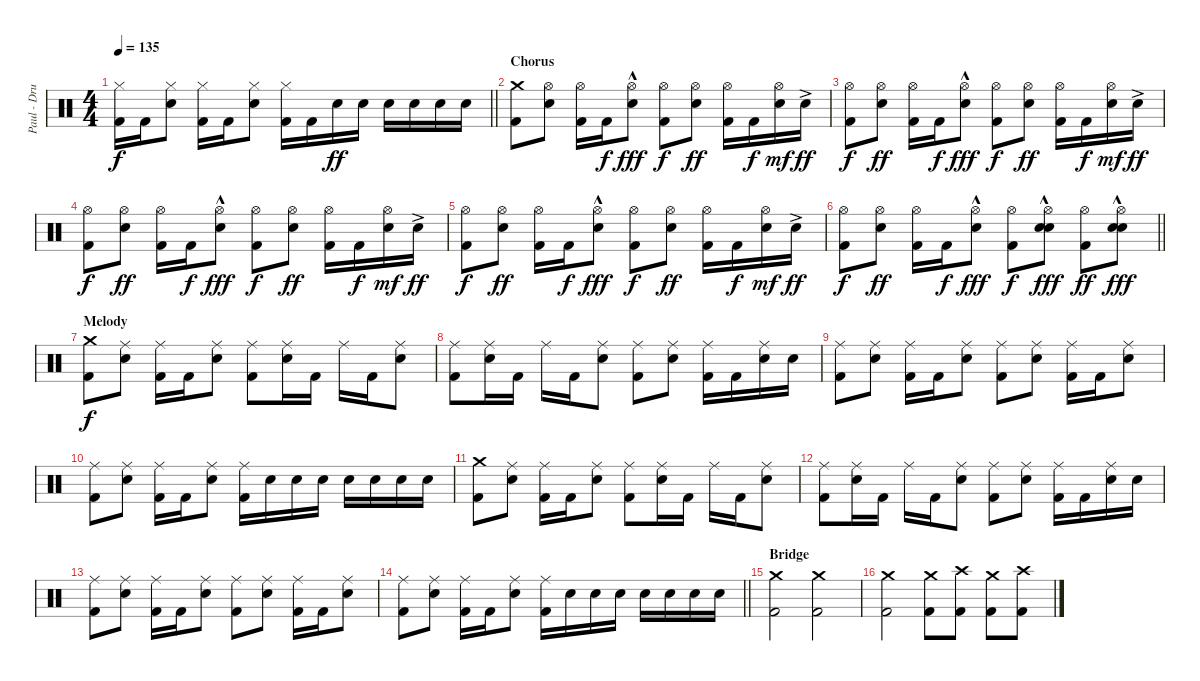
\track ("Paul - Drums" "Paul - Dru") {instrument percussion}
\staff {score}
\articulation defaults
\ts (4 4)
\tempo 135
\clef neutral
\barLineRight lightlight
\ks c
("Hi-Hat (closed)" "Kick (hit) 2").16{dy f} "Kick (hit) 2".16 ("Hi-Hat (closed)" "Electric Snare (hit)").8 ("Hi-Hat (closed)" "Kick (hit) 2").16 "Kick (hit) 2".16 ("Hi-Hat (closed)" "Electric Snare (hit)").8 ("Hi-Hat (closed)" "Kick (hit) 2").16 "Kick (hit) 2".16 "Electric Snare (hit)".16{dy ff} "Electric Snare (hit)".16 "Electric Snare (hit)".16 "Electric Snare (hit)".16 "Electric Snare (hit)".16 "Electric Snare (hit)".16 |
\section ("" "Chorus")
("Crash medium (hit)" "Kick (hit) 2").8 ("Hi-Hat (open)" "Electric Snare (hit)").8 ("Hi-Hat (open)" "Kick (hit) 2").16 "Kick (hit) 2".16{dy f} ("Hi-Hat (open)" "Electric Snare (hit)"{hac}).8{dy fff} ("Hi-Hat (open)" "Kick (hit) 2").8{dy f} ("Hi-Hat (open)" "Electric Snare (hit)").8{dy ff} ("Hi-Hat (open)" "Kick (hit) 2").16 "Kick (hit) 2".16{dy f} ("Hi-Hat (open)" "Electric Snare (hit)").16{dy mf} "Electric Snare (hit)"{ac}.16{dy ff} |
("Hi-Hat (open)" "Kick (hit) 2").8{dy f} ("Hi-Hat (open)" "Electric Snare (hit)").8{dy ff} ("Hi-Hat (open)" "Kick (hit) 2").16 "Kick (hit) 2".16{dy f} ("Hi-Hat (open)" "Electric Snare (hit)"{hac}).8{dy fff} ("Hi-Hat (open)" "Kick (hit) 2").8{dy f} ("Hi-Hat (open)" "Electric Snare (hit)").8{dy ff} ("Hi-Hat (open)" "Kick (hit) 2").16 "Kick (hit) 2".16{dy f} ("Hi-Hat (open)" "Electric Snare (hit)").16{dy mf} "Electric Snare (hit)"{ac}.16{dy ff} |
("Hi-Hat (open)" "Kick (hit) 2").8{dy f} ("Hi-Hat (open)" "Electric Snare (hit)").8{dy ff} ("Hi-Hat (open)" "Kick (hit) 2").16 "Kick (hit) 2".16{dy f} ("Hi-Hat (open)" "Electric Snare (hit)"{hac}).8{dy fff} ("Hi-Hat (open)" "Kick (hit) 2").8{dy f} ("Hi-Hat (open)" "Electric Snare (hit)").8{dy ff} ("Hi-Hat (open)" "Kick (hit) 2").16 "Kick (hit) 2".16{dy f} ("Hi-Hat (open)" "Electric Snare (hit)").16{dy mf} "Electric Snare (hit)"{ac}.16{dy ff} |
("Hi-Hat (open)" "Kick (hit) 2").8{dy f} ("Hi-Hat (open)" "Electric Snare (hit)").8{dy ff} ("Hi-Hat (open)" "Kick (hit) 2").16 "Kick (hit) 2".16{dy f} ("Hi-Hat (open)" "Electric Snare (hit)"{hac}).8{dy fff} ("Hi-Hat (open)" "Kick (hit) 2").8{dy f} ("Hi-Hat (open)" "Electric Snare (hit)").8{dy ff} ("Hi-Hat (open)" "Kick (hit) 2").16 "Kick (hit) 2".16{dy f} ("Hi-Hat (open)" "Electric Snare (hit)").16{dy mf} "Electric Snare (hit)"{ac}.16{dy ff} |
\barLineRight lightlight
("Hi-Hat (open)" "Kick (hit) 2").8{dy f} ("Hi-Hat (open)" "Electric Snare (hit)").8{dy ff} ("Hi-Hat (open)" "Kick (hit) 2").16 "Kick (hit) 2".16{dy f} ("Hi-Hat (open)" "Electric Snare (hit)"{hac}).8{dy fff} ("Hi-Hat (open)" "Kick (hit) 2").8{dy f} ("Hi-Hat (open)" "Snare (hit) 2"{hac} "Electric Snare (hit)"{hac}).8{dy fff} ("Hi-Hat (open)" "Kick (hit) 2").8{dy ff} ("Hi-Hat (open)" "Snare (hit) 2"{hac} "Electric Snare (hit)"{hac}).8{dy fff} |
\section ("" "Melody")
("Crash medium (hit)" "Kick (hit) 2").8{dy f} ("Ride (middle)" "Electric Snare (hit)").8 ("Ride (middle)" "Kick (hit) 2").16 "Kick (hit) 2".16 ("Ride (middle)" "Electric Snare (hit)").8 ("Ride (middle)" "Kick (hit) 2").8 ("Ride (middle)" "Electric Snare (hit)").16 "Kick (hit) 2".16 "Ride (middle)".16 "Kick (hit) 2".16 ("Ride (middle)" "Electric Snare (hit)").8 |
("Ride (middle)" "Kick (hit) 2").8 ("Ride (middle)" "Electric Snare (hit)").16 "Kick (hit) 2".16 "Ride (middle)".16 "Kick (hit) 2".16 ("Ride (middle)" "Electric Snare (hit)").8 ("Ride (middle)" "Kick (hit) 2").8 ("Ride (middle)" "Electric Snare (hit)").8 ("Ride (middle)" "Kick (hit) 2").16 "Kick (hit) 2".16 ("Ride (middle)" "Electric Snare (hit)").16 "Electric Snare (hit)".16 |
("Ride (middle)" "Kick (hit) 2").8 ("Ride (middle)" "Electric Snare (hit)").8 ("Ride (middle)" "Kick (hit) 2").16 "Kick (hit) 2".16 ("Ride (middle)" "Electric Snare (hit)").8 ("Ride (middle)" "Kick (hit) 2").8 ("Ride (middle)" "Electric Snare (hit)").8 ("Ride (middle)" "Kick (hit) 2").16 "Kick (hit) 2".16 ("Ride (middle)" "Electric Snare (hit)").8 |
("Ride (middle)" "Kick (hit) 2").8 ("Ride (middle)" "Electric Snare (hit)").8 ("Ride (middle)" "Kick (hit) 2").16 "Kick (hit) 2".16 ("Ride (middle)" "Electric Snare (hit)").8 ("Ride (middle)" "Kick (hit) 2").16 "Electric Snare (hit)".16 "Electric Snare (hit)".16 "Electric Snare (hit)".16 "Electric Snare (hit)".16 "Electric Snare (hit)".16 "Electric Snare (hit)".16 "Electric Snare (hit)".16 |
("Crash medium (hit)" "Kick (hit) 2").8 ("Ride (middle)" "Electric Snare (hit)").8 ("Ride (middle)" "Kick (hit) 2").16 "Kick (hit) 2".16 ("Ride (middle)" "Electric Snare (hit)").8 ("Ride (middle)" "Kick (hit) 2").8 ("Ride (middle)" "Electric Snare (hit)").16 "Kick (hit) 2".16 "Ride (middle)".16 "Kick (hit) 2".16 ("Ride (middle)" "Electric Snare (hit)").8 |
("Ride (middle)" "Kick (hit) 2").8 ("Ride (middle)" "Electric Snare (hit)").16 "Kick (hit) 2".16 "Ride (middle)".16 "Kick (hit) 2".16 ("Ride (middle)" "Electric Snare (hit)").8 ("Ride (middle)" "Kick (hit) 2").8 ("Ride (middle)" "Electric Snare (hit)").8 ("Ride (middle)" "Kick (hit) 2").16 "Kick (hit) 2".16 ("Ride (middle)" "Electric Snare (hit)").16 "Electric Snare (hit)".16 |
("Ride (middle)" "Kick (hit) 2").8 ("Ride (middle)" "Electric Snare (hit)").8 ("Ride (middle)" "Kick (hit) 2").16 "Kick (hit) 2".16 ("Ride (middle)" "Electric Snare (hit)").8 ("Ride (middle)" "Kick (hit) 2").8 ("Ride (middle)" "Electric Snare (hit)").8 ("Ride (middle)" "Kick (hit) 2").16 "Kick (hit) 2".16 ("Ride (middle)" "Electric Snare (hit)").8 |
\barLineRight lightlight
("Ride (middle)" "Kick (hit) 2").8 ("Ride (middle)" "Electric Snare (hit)").8 ("Ride (middle)" "Kick (hit) 2").16 "Kick (hit) 2".16 ("Ride (middle)" "Electric Snare (hit)").8 ("Ride (middle)" "Kick (hit) 2").16 "Electric Snare (hit)".16 "Electric Snare (hit)".16 "Electric Snare (hit)".16 "Electric Snare (hit)".16 "Electric Snare (hit)".16 "Electric Snare (hit)".16 "Electric Snare (hit)".16 |
\section ("" "Bridge")
("Crash medium (hit)" "Kick (hit) 2").2 ("Crash medium (hit)" "Kick (hit) 2").2 |
("Crash medium (hit)" "Kick (hit) 2").2 ("Crash medium (hit)" "Kick (hit) 2").8 ("Crash high (hit)" "Kick (hit) 2").8 ("Crash medium (hit)" "Kick (hit) 2").8 ("Crash high (hit)" "Kick (hit) 2").8
